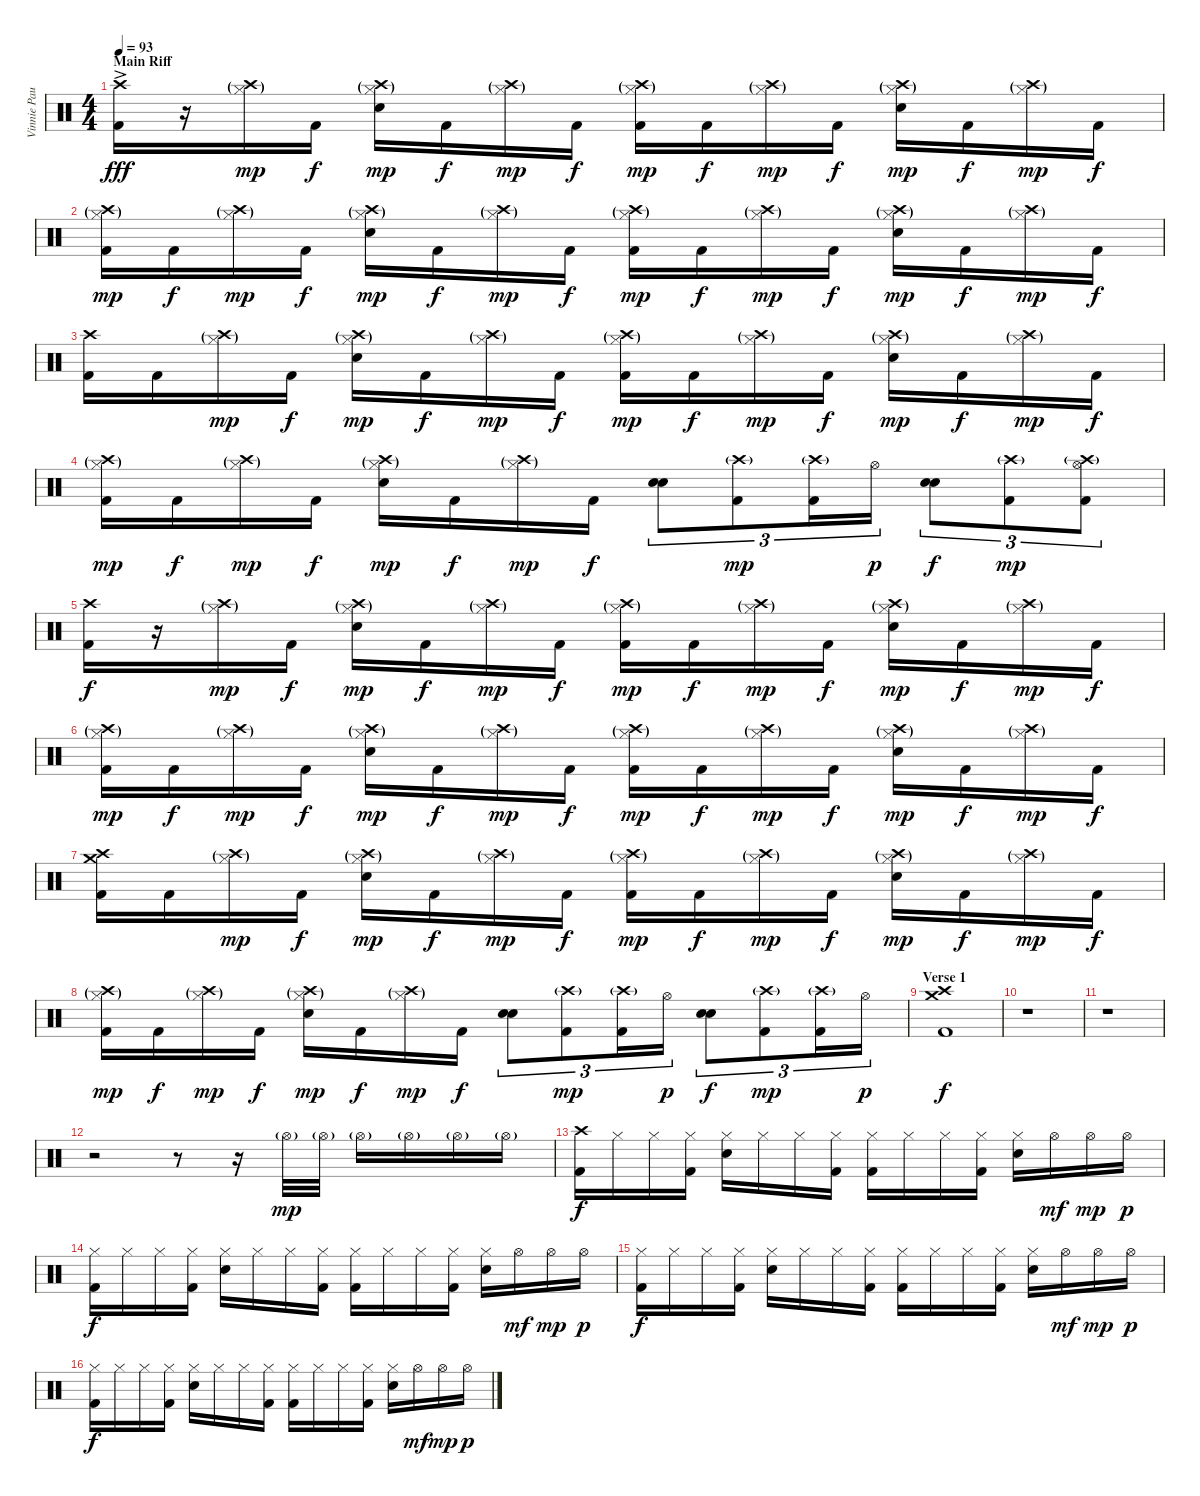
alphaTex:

\track ("Vinnie Paul" "Vinnie Pau") {instrument percussion}
\staff {score}
\articulation defaults
\ts (4 4)
\section ("" "Main Riff")
\tempo 93
\clef neutral
\ks c
("Crash high (hit)" "Kick (hit) 2"{ac}).16{dy fff} r.16 ("Crash high (hit)"{g} "Hi-Hat (closed)"{g}).16{dy mp} "Kick (hit) 2".16{dy f} ("Crash high (hit)"{g} "Hi-Hat (closed)"{g} "Electric Snare (hit)").16{dy mp} "Kick (hit) 2".16{dy f} ("Crash high (hit)"{g} "Hi-Hat (closed)"{g}).16{dy mp} "Kick (hit) 2".16{dy f} ("Crash high (hit)"{g} "Hi-Hat (closed)"{g} "Kick (hit) 2").16{dy mp} "Kick (hit) 2".16{dy f} ("Crash high (hit)"{g} "Hi-Hat (closed)"{g}).16{dy mp} "Kick (hit) 2".16{dy f} ("Crash high (hit)"{g} "Hi-Hat (closed)"{g} "Electric Snare (hit)").16{dy mp} "Kick (hit) 2".16{dy f} ("Crash high (hit)"{g} "Hi-Hat (closed)"{g}).16{dy mp} "Kick (hit) 2".16{dy f} |
("Crash high (hit)"{g} "Hi-Hat (closed)"{g} "Kick (hit) 2").16{dy mp} "Kick (hit) 2".16{dy f} ("Crash high (hit)"{g} "Hi-Hat (closed)"{g}).16{dy mp} "Kick (hit) 2".16{dy f} ("Crash high (hit)"{g} "Hi-Hat (closed)"{g} "Electric Snare (hit)").16{dy mp} "Kick (hit) 2".16{dy f} ("Crash high (hit)"{g} "Hi-Hat (closed)"{g}).16{dy mp} "Kick (hit) 2".16{dy f} ("Crash high (hit)"{g} "Hi-Hat (closed)"{g} "Kick (hit) 2").16{dy mp} "Kick (hit) 2".16{dy f} ("Crash high (hit)"{g} "Hi-Hat (closed)"{g}).16{dy mp} "Kick (hit) 2".16{dy f} ("Crash high (hit)"{g} "Hi-Hat (closed)"{g} "Electric Snare (hit)").16{dy mp} "Kick (hit) 2".16{dy f} ("Crash high (hit)"{g} "Hi-Hat (closed)"{g}).16{dy mp} "Kick (hit) 2".16{dy f} |
("Crash high (hit)" "Kick (hit) 2").16 "Kick (hit) 2".16 ("Crash high (hit)"{g} "Hi-Hat (closed)"{g}).16{dy mp} "Kick (hit) 2".16{dy f} ("Crash high (hit)"{g} "Hi-Hat (closed)"{g} "Electric Snare (hit)").16{dy mp} "Kick (hit) 2".16{dy f} ("Crash high (hit)"{g} "Hi-Hat (closed)"{g}).16{dy mp} "Kick (hit) 2".16{dy f} ("Crash high (hit)"{g} "Hi-Hat (closed)"{g} "Kick (hit) 2").16{dy mp} "Kick (hit) 2".16{dy f} ("Crash high (hit)"{g} "Hi-Hat (closed)"{g}).16{dy mp} "Kick (hit) 2".16{dy f} ("Crash high (hit)"{g} "Hi-Hat (closed)"{g} "Electric Snare (hit)").16{dy mp} "Kick (hit) 2".16{dy f} ("Crash high (hit)"{g} "Hi-Hat (closed)"{g}).16{dy mp} "Kick (hit) 2".16{dy f} |
("Crash high (hit)"{g} "Hi-Hat (closed)"{g} "Kick (hit) 2").16{dy mp} "Kick (hit) 2".16{dy f} ("Crash high (hit)"{g} "Hi-Hat (closed)"{g}).16{dy mp} "Kick (hit) 2".16{dy f} ("Crash high (hit)"{g} "Hi-Hat (closed)"{g} "Electric Snare (hit)").16{dy mp} "Kick (hit) 2".16{dy f} ("Crash high (hit)"{g} "Hi-Hat (closed)"{g}).16{dy mp} "Kick (hit) 2".16{dy f} ("Electric Snare (hit)" "Electric Snare (hit)").8{tu (3 2) bd 480} ("Crash high (hit)"{g} "Kick (hit) 2").8{tu (3 2) dy mp} ("Crash high (hit)"{g} "Kick (hit) 2").16{tu (3 2)} "Hi-Hat (open)".16{tu (3 2) dy p} ("Electric Snare (hit)" "Electric Snare (hit)").8{tu (3 2) bd 480 dy f} ("Crash high (hit)"{g} "Kick (hit) 2").8{tu (3 2) dy mp} ("Crash high (hit)"{g} "Hi-Hat (open)" "Kick (hit) 2").8{tu (3 2)} |
("Crash high (hit)" "Kick (hit) 2").16{dy f} r.16 ("Crash high (hit)"{g} "Hi-Hat (closed)"{g}).16{dy mp} "Kick (hit) 2".16{dy f} ("Crash high (hit)"{g} "Hi-Hat (closed)"{g} "Electric Snare (hit)").16{dy mp} "Kick (hit) 2".16{dy f} ("Crash high (hit)"{g} "Hi-Hat (closed)"{g}).16{dy mp} "Kick (hit) 2".16{dy f} ("Crash high (hit)"{g} "Hi-Hat (closed)"{g} "Kick (hit) 2").16{dy mp} "Kick (hit) 2".16{dy f} ("Crash high (hit)"{g} "Hi-Hat (closed)"{g}).16{dy mp} "Kick (hit) 2".16{dy f} ("Crash high (hit)"{g} "Hi-Hat (closed)"{g} "Electric Snare (hit)").16{dy mp} "Kick (hit) 2".16{dy f} ("Crash high (hit)"{g} "Hi-Hat (closed)"{g}).16{dy mp} "Kick (hit) 2".16{dy f} |
("Crash high (hit)"{g} "Hi-Hat (closed)"{g} "Kick (hit) 2").16{dy mp} "Kick (hit) 2".16{dy f} ("Crash high (hit)"{g} "Hi-Hat (closed)"{g}).16{dy mp} "Kick (hit) 2".16{dy f} ("Crash high (hit)"{g} "Hi-Hat (closed)"{g} "Electric Snare (hit)").16{dy mp} "Kick (hit) 2".16{dy f} ("Crash high (hit)"{g} "Hi-Hat (closed)"{g}).16{dy mp} "Kick (hit) 2".16{dy f} ("Crash high (hit)"{g} "Hi-Hat (closed)"{g} "Kick (hit) 2").16{dy mp} "Kick (hit) 2".16{dy f} ("Crash high (hit)"{g} "Hi-Hat (closed)"{g}).16{dy mp} "Kick (hit) 2".16{dy f} ("Crash high (hit)"{g} "Hi-Hat (closed)"{g} "Electric Snare (hit)").16{dy mp} "Kick (hit) 2".16{dy f} ("Crash high (hit)"{g} "Hi-Hat (closed)"{g}).16{dy mp} "Kick (hit) 2".16{dy f} |
("Crash high (hit)" "Crash medium (hit)" "Kick (hit) 2").16 "Kick (hit) 2".16 ("Crash high (hit)"{g} "Hi-Hat (closed)"{g}).16{dy mp} "Kick (hit) 2".16{dy f} ("Crash high (hit)"{g} "Hi-Hat (closed)"{g} "Electric Snare (hit)").16{dy mp} "Kick (hit) 2".16{dy f} ("Crash high (hit)"{g} "Hi-Hat (closed)"{g}).16{dy mp} "Kick (hit) 2".16{dy f} ("Crash high (hit)"{g} "Hi-Hat (closed)"{g} "Kick (hit) 2").16{dy mp} "Kick (hit) 2".16{dy f} ("Crash high (hit)"{g} "Hi-Hat (closed)"{g}).16{dy mp} "Kick (hit) 2".16{dy f} ("Crash high (hit)"{g} "Hi-Hat (closed)"{g} "Electric Snare (hit)").16{dy mp} "Kick (hit) 2".16{dy f} ("Crash high (hit)"{g} "Hi-Hat (closed)"{g}).16{dy mp} "Kick (hit) 2".16{dy f} |
("Crash high (hit)"{g} "Hi-Hat (closed)"{g} "Kick (hit) 2").16{dy mp} "Kick (hit) 2".16{dy f} ("Crash high (hit)"{g} "Hi-Hat (closed)"{g}).16{dy mp} "Kick (hit) 2".16{dy f} ("Crash high (hit)"{g} "Hi-Hat (closed)"{g} "Electric Snare (hit)").16{dy mp} "Kick (hit) 2".16{dy f} ("Crash high (hit)"{g} "Hi-Hat (closed)"{g}).16{dy mp} "Kick (hit) 2".16{dy f} ("Electric Snare (hit)" "Electric Snare (hit)").8{tu (3 2) bd 480} ("Crash high (hit)"{g} "Kick (hit) 2").8{tu (3 2) dy mp} ("Crash high (hit)"{g} "Kick (hit) 2").16{tu (3 2)} "Hi-Hat (open)".16{tu (3 2) dy p} ("Electric Snare (hit)" "Electric Snare (hit)").8{tu (3 2) bd 480 dy f} ("Crash high (hit)"{g} "Kick (hit) 2").8{tu (3 2) dy mp} ("Crash high (hit)"{g} "Kick (hit) 2").16{tu (3 2)} "Hi-Hat (open)".16{tu (3 2) dy p} |
\section ("" "Verse 1")
("Crash high (hit)" "Crash medium (hit)" "Kick (hit) 2").1{dy f} |
r.1 |
r.1 |
r.2 r.8 r.16 "Hi-Hat (open)"{g}.32{dy mp} "Hi-Hat (open)"{g}.32 "Hi-Hat (open)"{g}.16 "Hi-Hat (open)"{g}.16 "Hi-Hat (open)"{g}.16 "Hi-Hat (open)"{g}.16 |
("Crash high (hit)" "Kick (hit) 2").16{dy f} "Hi-Hat (closed)".16 "Hi-Hat (closed)".16 ("Hi-Hat (closed)" "Kick (hit) 2").16 ("Hi-Hat (closed)" "Electric Snare (hit)").16 "Hi-Hat (closed)".16 "Hi-Hat (closed)".16 ("Hi-Hat (closed)" "Kick (hit) 2").16 ("Hi-Hat (closed)" "Kick (hit) 2").16 "Hi-Hat (closed)".16 "Hi-Hat (closed)".16 ("Hi-Hat (closed)" "Kick (hit) 2").16 ("Hi-Hat (closed)" "Electric Snare (hit)").16 "Hi-Hat (open)".16{dy mf} "Hi-Hat (open)".16{dy mp} "Hi-Hat (open)".16{dy p} |
("Hi-Hat (closed)" "Kick (hit) 2").16{dy f} "Hi-Hat (closed)".16 "Hi-Hat (closed)".16 ("Hi-Hat (closed)" "Kick (hit) 2").16 ("Hi-Hat (closed)" "Electric Snare (hit)").16 "Hi-Hat (closed)".16 "Hi-Hat (closed)".16 ("Hi-Hat (closed)" "Kick (hit) 2").16 ("Hi-Hat (closed)" "Kick (hit) 2").16 "Hi-Hat (closed)".16 "Hi-Hat (closed)".16 ("Hi-Hat (closed)" "Kick (hit) 2").16 ("Hi-Hat (closed)" "Electric Snare (hit)").16 "Hi-Hat (open)".16{dy mf} "Hi-Hat (open)".16{dy mp} "Hi-Hat (open)".16{dy p} |
("Hi-Hat (closed)" "Kick (hit) 2").16{dy f} "Hi-Hat (closed)".16 "Hi-Hat (closed)".16 ("Hi-Hat (closed)" "Kick (hit) 2").16 ("Hi-Hat (closed)" "Electric Snare (hit)").16 "Hi-Hat (closed)".16 "Hi-Hat (closed)".16 ("Hi-Hat (closed)" "Kick (hit) 2").16 ("Hi-Hat (closed)" "Kick (hit) 2").16 "Hi-Hat (closed)".16 "Hi-Hat (closed)".16 ("Hi-Hat (closed)" "Kick (hit) 2").16 ("Hi-Hat (closed)" "Electric Snare (hit)").16 "Hi-Hat (open)".16{dy mf} "Hi-Hat (open)".16{dy mp} "Hi-Hat (open)".16{dy p} |
("Hi-Hat (closed)" "Kick (hit) 2").16{dy f} "Hi-Hat (closed)".16 "Hi-Hat (closed)".16 ("Hi-Hat (closed)" "Kick (hit) 2").16 ("Hi-Hat (closed)" "Electric Snare (hit)").16 "Hi-Hat (closed)".16 "Hi-Hat (closed)".16 ("Hi-Hat (closed)" "Kick (hit) 2").16 ("Hi-Hat (closed)" "Kick (hit) 2").16 "Hi-Hat (closed)".16 "Hi-Hat (closed)".16 ("Hi-Hat (closed)" "Kick (hit) 2").16 ("Hi-Hat (closed)" "Electric Snare (hit)").16 "Hi-Hat (open)".16{dy mf} "Hi-Hat (open)".16{dy mp} "Hi-Hat (open)".16{dy p}
